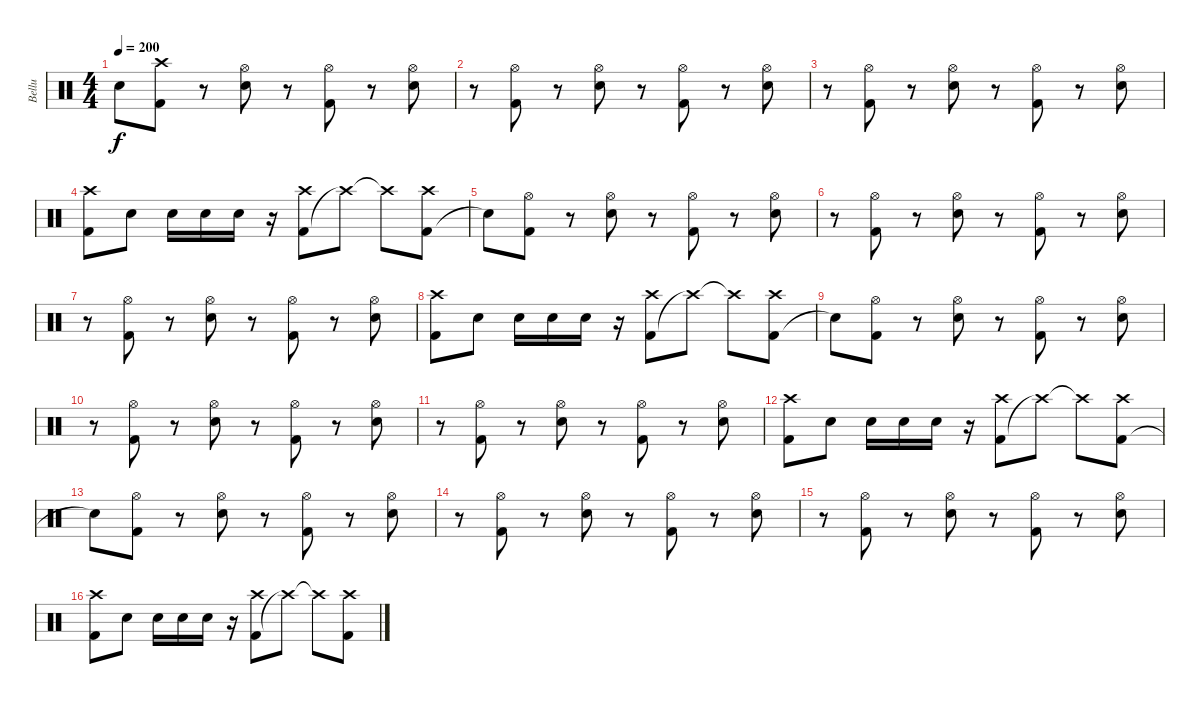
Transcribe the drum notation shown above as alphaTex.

\track ("Bellu" "Bellu") {instrument percussion}
\staff {score}
\articulation defaults
\ts (4 4)
\tempo 200
\clef neutral
\ks c "Snare (hit)"{t}.8{dy f}
("Kick (hit) 2" "Crash high (hit)").8 r.8 ("Electric Snare (hit)" "Hi-Hat (open)").8 r.8 ("Kick (hit) 2" "Hi-Hat (open)").8 r.8 ("Electric Snare (hit)" "Hi-Hat (open)").8 |
r.8 ("Kick (hit) 2" "Hi-Hat (open)").8 r.8 ("Electric Snare (hit)" "Hi-Hat (open)").8 r.8 ("Kick (hit) 2" "Hi-Hat (open)").8 r.8 ("Electric Snare (hit)" "Hi-Hat (open)").8 |
r.8 ("Kick (hit) 2" "Hi-Hat (open)").8 r.8 ("Electric Snare (hit)" "Hi-Hat (open)").8 r.8 ("Kick (hit) 2" "Hi-Hat (open)").8 r.8 ("Electric Snare (hit)" "Hi-Hat (open)").8 |
("Kick (hit) 2" "Crash high (hit)").8 "Electric Snare (hit)".8 "Electric Snare (hit)".16 "Electric Snare (hit)".16 "Electric Snare (hit)".16 r.16 ("Kick (hit) 2" "Crash high (hit)").8 "Crash high (hit)"{t}.8 "Crash high (hit)"{t}.8 ("Kick (hit) 2" "Crash high (hit)").8 |
"Snare (hit)"{t}.8 ("Kick (hit) 2" "Hi-Hat (open)").8 r.8 ("Electric Snare (hit)" "Hi-Hat (open)").8 r.8 ("Kick (hit) 2" "Hi-Hat (open)").8 r.8 ("Electric Snare (hit)" "Hi-Hat (open)").8 |
r.8 ("Kick (hit) 2" "Hi-Hat (open)").8 r.8 ("Electric Snare (hit)" "Hi-Hat (open)").8 r.8 ("Kick (hit) 2" "Hi-Hat (open)").8 r.8 ("Electric Snare (hit)" "Hi-Hat (open)").8 |
r.8 ("Kick (hit) 2" "Hi-Hat (open)").8 r.8 ("Electric Snare (hit)" "Hi-Hat (open)").8 r.8 ("Kick (hit) 2" "Hi-Hat (open)").8 r.8 ("Electric Snare (hit)" "Hi-Hat (open)").8 |
("Kick (hit) 2" "Crash high (hit)").8 "Electric Snare (hit)".8 "Electric Snare (hit)".16 "Electric Snare (hit)".16 "Electric Snare (hit)".16 r.16 ("Kick (hit) 2" "Crash high (hit)").8 "Crash high (hit)"{t}.8 "Crash high (hit)"{t}.8 ("Kick (hit) 2" "Crash high (hit)").8 |
"Snare (hit)"{t}.8 ("Kick (hit) 2" "Hi-Hat (open)").8 r.8 ("Electric Snare (hit)" "Hi-Hat (open)").8 r.8 ("Kick (hit) 2" "Hi-Hat (open)").8 r.8 ("Electric Snare (hit)" "Hi-Hat (open)").8 |
r.8 ("Kick (hit) 2" "Hi-Hat (open)").8 r.8 ("Electric Snare (hit)" "Hi-Hat (open)").8 r.8 ("Kick (hit) 2" "Hi-Hat (open)").8 r.8 ("Electric Snare (hit)" "Hi-Hat (open)").8 |
r.8 ("Kick (hit) 2" "Hi-Hat (open)").8 r.8 ("Electric Snare (hit)" "Hi-Hat (open)").8 r.8 ("Kick (hit) 2" "Hi-Hat (open)").8 r.8 ("Electric Snare (hit)" "Hi-Hat (open)").8 |
("Kick (hit) 2" "Crash high (hit)").8 "Electric Snare (hit)".8 "Electric Snare (hit)".16 "Electric Snare (hit)".16 "Electric Snare (hit)".16 r.16 ("Kick (hit) 2" "Crash high (hit)").8 "Crash high (hit)"{t}.8 "Crash high (hit)"{t}.8 ("Kick (hit) 2" "Crash high (hit)").8 |
"Snare (hit)"{t}.8 ("Kick (hit) 2" "Hi-Hat (open)").8 r.8 ("Electric Snare (hit)" "Hi-Hat (open)").8 r.8 ("Kick (hit) 2" "Hi-Hat (open)").8 r.8 ("Electric Snare (hit)" "Hi-Hat (open)").8 |
r.8 ("Kick (hit) 2" "Hi-Hat (open)").8 r.8 ("Electric Snare (hit)" "Hi-Hat (open)").8 r.8 ("Kick (hit) 2" "Hi-Hat (open)").8 r.8 ("Electric Snare (hit)" "Hi-Hat (open)").8 |
r.8 ("Kick (hit) 2" "Hi-Hat (open)").8 r.8 ("Electric Snare (hit)" "Hi-Hat (open)").8 r.8 ("Kick (hit) 2" "Hi-Hat (open)").8 r.8 ("Electric Snare (hit)" "Hi-Hat (open)").8 |
("Kick (hit) 2" "Crash high (hit)").8 "Electric Snare (hit)".8 "Electric Snare (hit)".16 "Electric Snare (hit)".16 "Electric Snare (hit)".16 r.16 ("Kick (hit) 2" "Crash high (hit)").8 "Crash high (hit)"{t}.8 "Crash high (hit)"{t}.8 ("Kick (hit) 2" "Crash high (hit)").8
